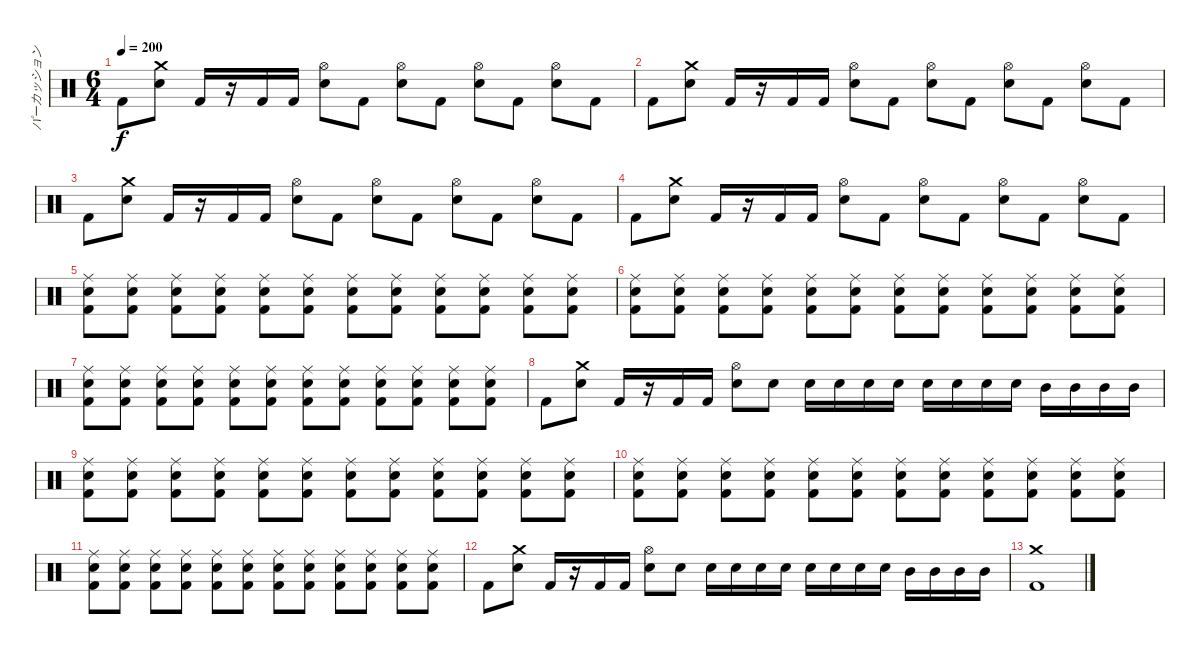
\track ("パーカッション" "パーカッション") {instrument percussion}
\staff {score}
\articulation defaults
\ts (6 4)
\tempo 200
\clef neutral
\ks c "Kick (hit) 2".8{dy f}
("Crash medium (hit)" "Snare (hit) 2").8 "Kick (hit) 2".16 r.16 "Kick (hit) 2".16 "Kick (hit) 2".16 ("Hi-Hat (open)" "Snare (hit) 2").8 "Kick (hit) 2".8 ("Hi-Hat (open)" "Snare (hit) 2").8 "Kick (hit) 2".8 ("Hi-Hat (open)" "Snare (hit) 2").8 "Kick (hit) 2".8 ("Hi-Hat (open)" "Snare (hit) 2").8 "Kick (hit) 2".8 |
"Kick (hit) 2".8 ("Crash medium (hit)" "Snare (hit) 2").8 "Kick (hit) 2".16 r.16 "Kick (hit) 2".16 "Kick (hit) 2".16 ("Hi-Hat (open)" "Snare (hit) 2").8 "Kick (hit) 2".8 ("Hi-Hat (open)" "Snare (hit) 2").8 "Kick (hit) 2".8 ("Hi-Hat (open)" "Snare (hit) 2").8 "Kick (hit) 2".8 ("Hi-Hat (open)" "Snare (hit) 2").8 "Kick (hit) 2".8 |
"Kick (hit) 2".8 ("Crash medium (hit)" "Snare (hit) 2").8 "Kick (hit) 2".16 r.16 "Kick (hit) 2".16 "Kick (hit) 2".16 ("Hi-Hat (open)" "Snare (hit) 2").8 "Kick (hit) 2".8 ("Hi-Hat (open)" "Snare (hit) 2").8 "Kick (hit) 2".8 ("Hi-Hat (open)" "Snare (hit) 2").8 "Kick (hit) 2".8 ("Hi-Hat (open)" "Snare (hit) 2").8 "Kick (hit) 2".8 |
"Kick (hit) 2".8 ("Crash medium (hit)" "Snare (hit) 2").8 "Kick (hit) 2".16 r.16 "Kick (hit) 2".16 "Kick (hit) 2".16 ("Hi-Hat (open)" "Snare (hit) 2").8 "Kick (hit) 2".8 ("Hi-Hat (open)" "Snare (hit) 2").8 "Kick (hit) 2".8 ("Hi-Hat (open)" "Snare (hit) 2").8 "Kick (hit) 2".8 ("Hi-Hat (open)" "Snare (hit) 2").8 "Kick (hit) 2".8 |
("Ride (middle)" "Snare (hit) 2" "Kick (hit) 2").8 ("Ride (middle)" "Snare (hit) 2" "Kick (hit) 2").8 ("Ride (middle)" "Snare (hit) 2" "Kick (hit) 2").8 ("Ride (middle)" "Snare (hit) 2" "Kick (hit) 2").8 ("Ride (middle)" "Snare (hit) 2" "Kick (hit) 2").8 ("Ride (middle)" "Snare (hit) 2" "Kick (hit) 2").8 ("Ride (middle)" "Snare (hit) 2" "Kick (hit) 2").8 ("Ride (middle)" "Snare (hit) 2" "Kick (hit) 2").8 ("Ride (middle)" "Snare (hit) 2" "Kick (hit) 2").8 ("Ride (middle)" "Snare (hit) 2" "Kick (hit) 2").8 ("Ride (middle)" "Snare (hit) 2" "Kick (hit) 2").8 ("Ride (middle)" "Snare (hit) 2" "Kick (hit) 2").8 |
("Ride (middle)" "Snare (hit) 2" "Kick (hit) 2").8 ("Ride (middle)" "Snare (hit) 2" "Kick (hit) 2").8 ("Ride (middle)" "Snare (hit) 2" "Kick (hit) 2").8 ("Ride (middle)" "Snare (hit) 2" "Kick (hit) 2").8 ("Ride (middle)" "Snare (hit) 2" "Kick (hit) 2").8 ("Ride (middle)" "Snare (hit) 2" "Kick (hit) 2").8 ("Ride (middle)" "Snare (hit) 2" "Kick (hit) 2").8 ("Ride (middle)" "Snare (hit) 2" "Kick (hit) 2").8 ("Ride (middle)" "Snare (hit) 2" "Kick (hit) 2").8 ("Ride (middle)" "Snare (hit) 2" "Kick (hit) 2").8 ("Ride (middle)" "Snare (hit) 2" "Kick (hit) 2").8 ("Ride (middle)" "Snare (hit) 2" "Kick (hit) 2").8 |
("Ride (middle)" "Snare (hit) 2" "Kick (hit) 2").8 ("Ride (middle)" "Snare (hit) 2" "Kick (hit) 2").8 ("Ride (middle)" "Snare (hit) 2" "Kick (hit) 2").8 ("Ride (middle)" "Snare (hit) 2" "Kick (hit) 2").8 ("Ride (middle)" "Snare (hit) 2" "Kick (hit) 2").8 ("Ride (middle)" "Snare (hit) 2" "Kick (hit) 2").8 ("Ride (middle)" "Snare (hit) 2" "Kick (hit) 2").8 ("Ride (middle)" "Snare (hit) 2" "Kick (hit) 2").8 ("Ride (middle)" "Snare (hit) 2" "Kick (hit) 2").8 ("Ride (middle)" "Snare (hit) 2" "Kick (hit) 2").8 ("Ride (middle)" "Snare (hit) 2" "Kick (hit) 2").8 ("Ride (middle)" "Snare (hit) 2" "Kick (hit) 2").8 |
"Kick (hit) 2".8 ("Crash medium (hit)" "Snare (hit) 2").8 "Kick (hit) 2".16 r.16 "Kick (hit) 2".16 "Kick (hit) 2".16 ("Hi-Hat (open)" "Snare (hit) 2").8 "Snare (hit) 2".8 "Snare (hit) 2".16 "Snare (hit) 2".16 "Snare (hit) 2".16 "Snare (hit) 2".16 "Snare (hit) 2".16 "Snare (hit) 2".16 "Snare (hit) 2".16 "Snare (hit) 2".16 "Mid Tom (hit)".16 "Mid Tom (hit)".16 "Mid Tom (hit)".16 "Mid Tom (hit)".16 |
("Ride (middle)" "Snare (hit) 2" "Kick (hit) 2").8 ("Ride (middle)" "Snare (hit) 2" "Kick (hit) 2").8 ("Ride (middle)" "Snare (hit) 2" "Kick (hit) 2").8 ("Ride (middle)" "Snare (hit) 2" "Kick (hit) 2").8 ("Ride (middle)" "Snare (hit) 2" "Kick (hit) 2").8 ("Ride (middle)" "Snare (hit) 2" "Kick (hit) 2").8 ("Ride (middle)" "Snare (hit) 2" "Kick (hit) 2").8 ("Ride (middle)" "Snare (hit) 2" "Kick (hit) 2").8 ("Ride (middle)" "Snare (hit) 2" "Kick (hit) 2").8 ("Ride (middle)" "Snare (hit) 2" "Kick (hit) 2").8 ("Ride (middle)" "Snare (hit) 2" "Kick (hit) 2").8 ("Ride (middle)" "Snare (hit) 2" "Kick (hit) 2").8 |
("Ride (middle)" "Snare (hit) 2" "Kick (hit) 2").8 ("Ride (middle)" "Snare (hit) 2" "Kick (hit) 2").8 ("Ride (middle)" "Snare (hit) 2" "Kick (hit) 2").8 ("Ride (middle)" "Snare (hit) 2" "Kick (hit) 2").8 ("Ride (middle)" "Snare (hit) 2" "Kick (hit) 2").8 ("Ride (middle)" "Snare (hit) 2" "Kick (hit) 2").8 ("Ride (middle)" "Snare (hit) 2" "Kick (hit) 2").8 ("Ride (middle)" "Snare (hit) 2" "Kick (hit) 2").8 ("Ride (middle)" "Snare (hit) 2" "Kick (hit) 2").8 ("Ride (middle)" "Snare (hit) 2" "Kick (hit) 2").8 ("Ride (middle)" "Snare (hit) 2" "Kick (hit) 2").8 ("Ride (middle)" "Snare (hit) 2" "Kick (hit) 2").8 |
("Ride (middle)" "Snare (hit) 2" "Kick (hit) 2").8 ("Ride (middle)" "Snare (hit) 2" "Kick (hit) 2").8 ("Ride (middle)" "Snare (hit) 2" "Kick (hit) 2").8 ("Ride (middle)" "Snare (hit) 2" "Kick (hit) 2").8 ("Ride (middle)" "Snare (hit) 2" "Kick (hit) 2").8 ("Ride (middle)" "Snare (hit) 2" "Kick (hit) 2").8 ("Ride (middle)" "Snare (hit) 2" "Kick (hit) 2").8 ("Ride (middle)" "Snare (hit) 2" "Kick (hit) 2").8 ("Ride (middle)" "Snare (hit) 2" "Kick (hit) 2").8 ("Ride (middle)" "Snare (hit) 2" "Kick (hit) 2").8 ("Ride (middle)" "Snare (hit) 2" "Kick (hit) 2").8 ("Ride (middle)" "Snare (hit) 2" "Kick (hit) 2").8 |
"Kick (hit) 2".8 ("Crash medium (hit)" "Snare (hit) 2").8 "Kick (hit) 2".16 r.16 "Kick (hit) 2".16 "Kick (hit) 2".16 ("Hi-Hat (open)" "Snare (hit) 2").8 "Snare (hit) 2".8 "Snare (hit) 2".16 "Snare (hit) 2".16 "Snare (hit) 2".16 "Snare (hit) 2".16 "Snare (hit) 2".16 "Snare (hit) 2".16 "Snare (hit) 2".16 "Snare (hit) 2".16 "Mid Tom (hit)".16 "Mid Tom (hit)".16 "Mid Tom (hit)".16 "Mid Tom (hit)".16 |
("Crash medium (hit)" "Kick (hit) 2").1
